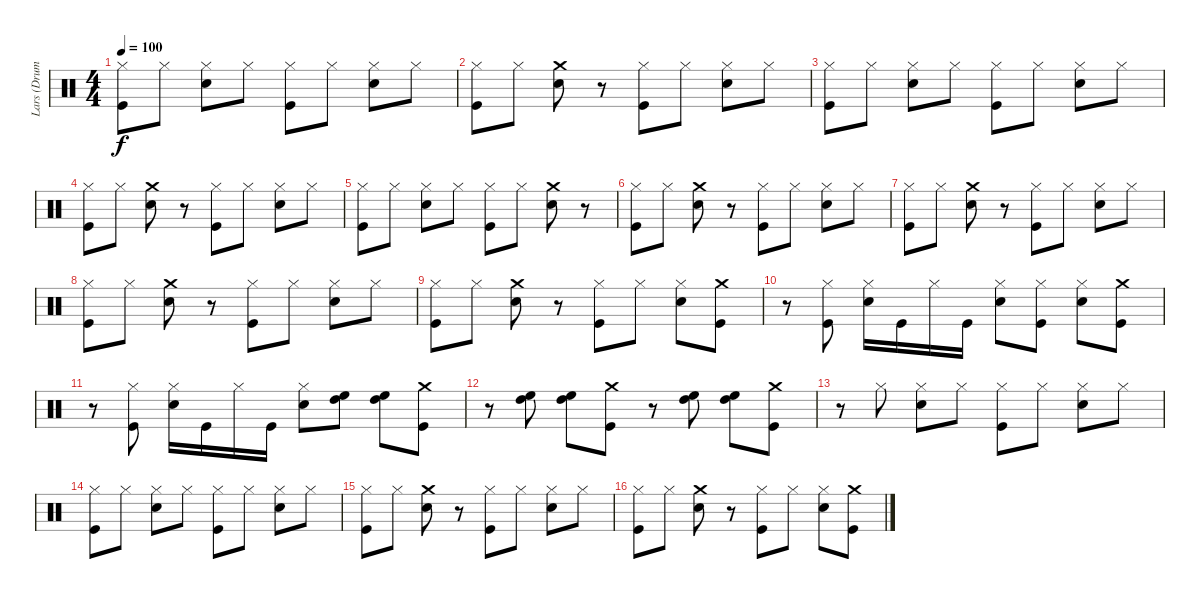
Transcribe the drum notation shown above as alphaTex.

\track ("Lars (Drums)" "Lars (Drum") {instrument percussion}
\staff {score}
\articulation defaults
\ts (4 4)
\tempo 100
\clef neutral
\ks c
("Hi-Hat (closed)" "Kick (hit)").8{dy f} "Hi-Hat (closed)".8 ("Snare (hit) 2" "Hi-Hat (closed)").8 "Hi-Hat (closed)".8 ("Hi-Hat (closed)" "Kick (hit)").8 "Hi-Hat (closed)".8 ("Snare (hit) 2" "Hi-Hat (closed)").8 "Hi-Hat (closed)".8 |
("Hi-Hat (closed)" "Kick (hit)").8 "Hi-Hat (closed)".8 ("Crash medium (hit)" "Snare (hit) 2").8 r.8 ("Hi-Hat (closed)" "Kick (hit)").8 "Hi-Hat (closed)".8 ("Snare (hit) 2" "Hi-Hat (closed)").8 "Hi-Hat (closed)".8 |
("Hi-Hat (closed)" "Kick (hit)").8 "Hi-Hat (closed)".8 ("Snare (hit) 2" "Hi-Hat (closed)").8 "Hi-Hat (closed)".8 ("Hi-Hat (closed)" "Kick (hit)").8 "Hi-Hat (closed)".8 ("Snare (hit) 2" "Hi-Hat (closed)").8 "Hi-Hat (closed)".8 |
("Hi-Hat (closed)" "Kick (hit)").8 "Hi-Hat (closed)".8 ("Crash medium (hit)" "Snare (hit) 2").8 r.8 ("Kick (hit)" "Hi-Hat (closed)").8 "Hi-Hat (closed)".8 ("Snare (hit) 2" "Hi-Hat (closed)").8 "Hi-Hat (closed)".8 |
("Hi-Hat (closed)" "Kick (hit)").8 "Hi-Hat (closed)".8 ("Snare (hit) 2" "Hi-Hat (closed)").8 "Hi-Hat (closed)".8 ("Kick (hit)" "Hi-Hat (closed)").8 "Hi-Hat (closed)".8 ("Crash medium (hit)" "Snare (hit) 2").8 r.8 |
("Hi-Hat (closed)" "Kick (hit)").8 "Hi-Hat (closed)".8 ("Crash medium (hit)" "Snare (hit) 2").8 r.8 ("Hi-Hat (closed)" "Kick (hit)").8 "Hi-Hat (closed)".8 ("Snare (hit) 2" "Hi-Hat (closed)").8 "Hi-Hat (closed)".8 |
("Hi-Hat (closed)" "Kick (hit)").8 "Hi-Hat (closed)".8 ("Crash medium (hit)" "Snare (hit) 2").8 r.8 ("Kick (hit)" "Hi-Hat (closed)").8 "Hi-Hat (closed)".8 ("Snare (hit) 2" "Hi-Hat (closed)").8 "Hi-Hat (closed)".8 |
("Hi-Hat (closed)" "Kick (hit)").8 "Hi-Hat (closed)".8 ("Crash medium (hit)" "Snare (hit) 2").8 r.8 ("Kick (hit)" "Hi-Hat (closed)").8 "Hi-Hat (closed)".8 ("Snare (hit) 2" "Hi-Hat (closed)").8 "Hi-Hat (closed)".8 |
("Hi-Hat (closed)" "Kick (hit)").8 "Hi-Hat (closed)".8 ("Crash medium (hit)" "Snare (hit) 2").8 r.8 ("Kick (hit)" "Hi-Hat (closed)").8 "Hi-Hat (closed)".8 ("Hi-Hat (closed)" "Snare (hit) 2").8 ("Crash medium (hit)" "Kick (hit)").8 |
r.8 ("Kick (hit)" "Hi-Hat (closed)").8 ("Hi-Hat (closed)" "Snare (hit) 2").16 "Kick (hit)".16 "Hi-Hat (closed)".16 "Kick (hit)".16 ("Snare (hit) 2" "Hi-Hat (closed)").8 ("Hi-Hat (closed)" "Kick (hit)").8 ("Hi-Hat (closed)" "Snare (hit) 2").8 ("Crash medium (hit)" "Kick (hit)").8 |
r.8 ("Kick (hit)" "Hi-Hat (closed)").8 ("Hi-Hat (closed)" "Snare (hit) 2").16 "Kick (hit)".16 "Hi-Hat (closed)".16 "Kick (hit)".16 ("Snare (hit) 2" "Hi-Hat (closed)").8 ("High Tom (hit)" "High Floor Tom (hit)").8 ("High Tom (hit)" "High Floor Tom (hit)").8 ("Crash medium (hit)" "Kick (hit)").8 |
r.8 ("High Tom (hit)" "High Floor Tom (hit)").8 ("High Tom (hit)" "High Floor Tom (hit)").8 ("Crash medium (hit)" "Kick (hit)").8 r.8 ("High Tom (hit)" "High Floor Tom (hit)").8 ("High Tom (hit)" "High Floor Tom (hit)").8 ("Crash medium (hit)" "Kick (hit)").8 |
r.8 "Hi-Hat (closed)".8 ("Snare (hit) 2" "Hi-Hat (closed)").8 "Hi-Hat (closed)".8 ("Kick (hit)" "Hi-Hat (closed)").8 "Hi-Hat (closed)".8 ("Snare (hit) 2" "Hi-Hat (closed)").8 "Hi-Hat (closed)".8 |
("Hi-Hat (closed)" "Kick (hit)").8 "Hi-Hat (closed)".8 ("Snare (hit) 2" "Hi-Hat (closed)").8 "Hi-Hat (closed)".8 ("Kick (hit)" "Hi-Hat (closed)").8 "Hi-Hat (closed)".8 ("Snare (hit) 2" "Hi-Hat (closed)").8 "Hi-Hat (closed)".8 |
("Hi-Hat (closed)" "Kick (hit)").8 "Hi-Hat (closed)".8 ("Snare (hit) 2" "Crash medium (hit)").8 r.8 ("Kick (hit)" "Hi-Hat (closed)").8 "Hi-Hat (closed)".8 ("Hi-Hat (closed)" "Snare (hit) 2").8 "Hi-Hat (closed)".8 |
("Hi-Hat (closed)" "Kick (hit)").8 "Hi-Hat (closed)".8 ("Crash medium (hit)" "Snare (hit) 2").8 r.8 ("Kick (hit)" "Hi-Hat (closed)").8 "Hi-Hat (closed)".8 ("Snare (hit) 2" "Hi-Hat (closed)").8 ("Crash medium (hit)" "Kick (hit)").8
